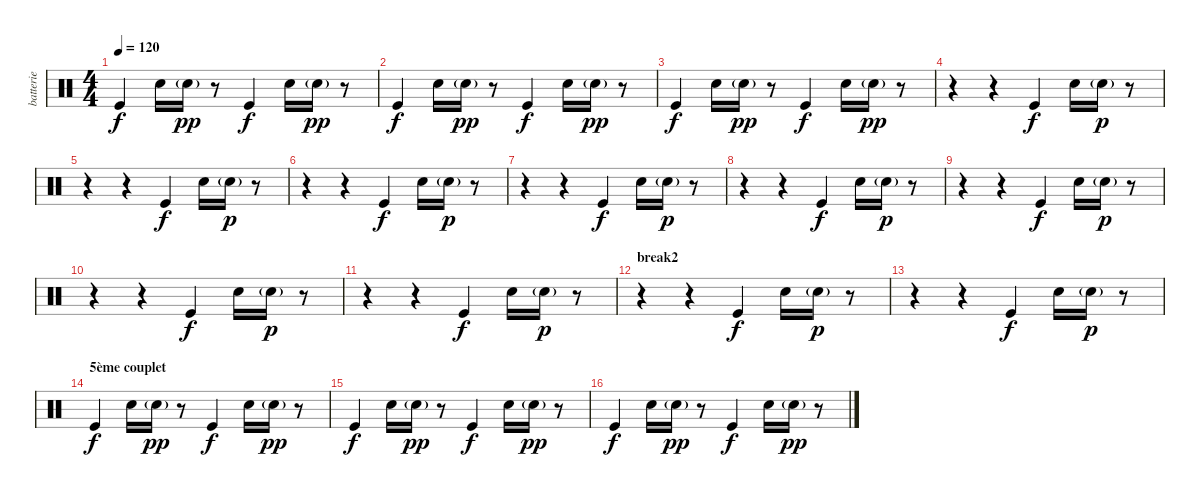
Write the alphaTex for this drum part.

\track ("batterie" "batterie") {instrument percussion}
\staff {score}
\articulation defaults
\ts (4 4)
\tempo 120
\clef neutral
\ks c "Kick (hit)".4{dy f} "Electric Snare (hit)".16 "Electric Snare (hit)"{g}.16{dy pp}
r.8 "Kick (hit)".4{dy f} "Electric Snare (hit)".16 "Electric Snare (hit)"{g}.16{dy pp} r.8 |
"Kick (hit)".4{dy f} "Electric Snare (hit)".16 "Electric Snare (hit)"{g}.16{dy pp} r.8 "Kick (hit)".4{dy f} "Electric Snare (hit)".16 "Electric Snare (hit)"{g}.16{dy pp} r.8 |
"Kick (hit)".4{dy f} "Electric Snare (hit)".16 "Electric Snare (hit)"{g}.16{dy pp} r.8 "Kick (hit)".4{dy f} "Electric Snare (hit)".16 "Electric Snare (hit)"{g}.16{dy pp} r.8 |
r.4 r.4 "Kick (hit)".4{dy f} "Electric Snare (hit)".16 "Electric Snare (hit)"{g}.16{dy p} r.8 |
r.4 r.4 "Kick (hit)".4{dy f} "Electric Snare (hit)".16 "Electric Snare (hit)"{g}.16{dy p} r.8 |
r.4 r.4 "Kick (hit)".4{dy f} "Electric Snare (hit)".16 "Electric Snare (hit)"{g}.16{dy p} r.8 |
r.4 r.4 "Kick (hit)".4{dy f} "Electric Snare (hit)".16 "Electric Snare (hit)"{g}.16{dy p} r.8 |
r.4 r.4 "Kick (hit)".4{dy f} "Electric Snare (hit)".16 "Electric Snare (hit)"{g}.16{dy p} r.8 |
r.4 r.4 "Kick (hit)".4{dy f} "Electric Snare (hit)".16 "Electric Snare (hit)"{g}.16{dy p} r.8 |
r.4 r.4 "Kick (hit)".4{dy f} "Electric Snare (hit)".16 "Electric Snare (hit)"{g}.16{dy p} r.8 |
r.4 r.4 "Kick (hit)".4{dy f} "Electric Snare (hit)".16 "Electric Snare (hit)"{g}.16{dy p} r.8 |
\section ("" "break2")
r.4 r.4 "Kick (hit)".4{dy f} "Electric Snare (hit)".16 "Electric Snare (hit)"{g}.16{dy p} r.8 |
r.4 r.4 "Kick (hit)".4{dy f} "Electric Snare (hit)".16 "Electric Snare (hit)"{g}.16{dy p} r.8 |
\section ("" "5ème couplet")
"Kick (hit)".4{dy f} "Electric Snare (hit)".16 "Electric Snare (hit)"{g}.16{dy pp} r.8 "Kick (hit)".4{dy f} "Electric Snare (hit)".16 "Electric Snare (hit)"{g}.16{dy pp} r.8 |
"Kick (hit)".4{dy f} "Electric Snare (hit)".16 "Electric Snare (hit)"{g}.16{dy pp} r.8 "Kick (hit)".4{dy f} "Electric Snare (hit)".16 "Electric Snare (hit)"{g}.16{dy pp} r.8 |
"Kick (hit)".4{dy f} "Electric Snare (hit)".16 "Electric Snare (hit)"{g}.16{dy pp} r.8 "Kick (hit)".4{dy f} "Electric Snare (hit)".16 "Electric Snare (hit)"{g}.16{dy pp} r.8
